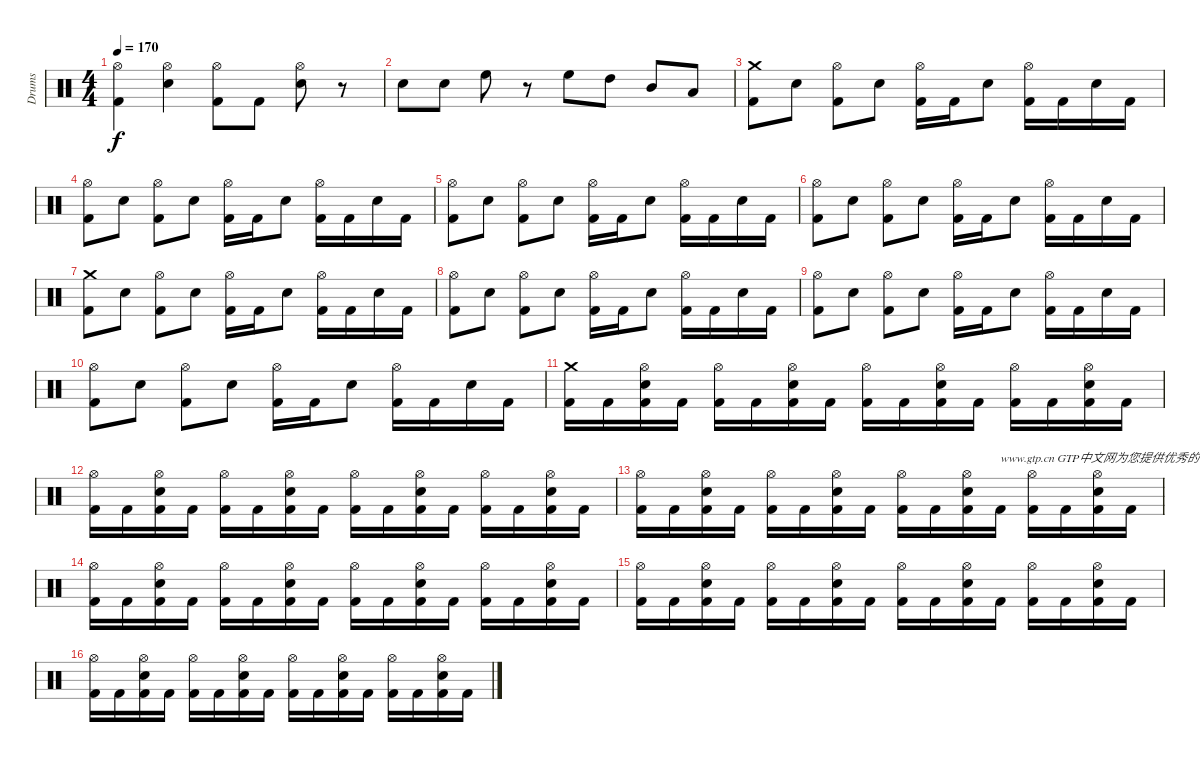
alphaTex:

\track ("Drums" "Drums") {instrument percussion}
\staff {score}
\articulation defaults
\ts (4 4)
\tempo 170
\clef neutral
\ks c
("Hi-Hat (open)" "Kick (hit) 2").4{dy f} ("Hi-Hat (open)" "Electric Snare (hit)").4 ("Hi-Hat (open)" "Kick (hit) 2").8 "Kick (hit) 2".8 ("Hi-Hat (open)" "Electric Snare (hit)").8 r.8 |
"Electric Snare (hit)".8 "Electric Snare (hit)".8 "High Floor Tom (hit)".8 r.8 "High Floor Tom (hit)".8 "High Tom (hit)".8 "Mid Tom (hit)".8 "Low Tom (hit)".8 |
("Crash medium (hit)" "Kick (hit) 2").8 "Electric Snare (hit)".8 ("Hi-Hat (open)" "Kick (hit) 2").8 "Electric Snare (hit)".8 ("Hi-Hat (open)" "Kick (hit) 2").16 "Kick (hit) 2".16 "Electric Snare (hit)".8 ("Hi-Hat (open)" "Kick (hit) 2").16 "Kick (hit) 2".16 "Electric Snare (hit)".16 "Kick (hit) 2".16 |
("Hi-Hat (open)" "Kick (hit) 2").8 "Electric Snare (hit)".8 ("Hi-Hat (open)" "Kick (hit) 2").8 "Electric Snare (hit)".8 ("Hi-Hat (open)" "Kick (hit) 2").16 "Kick (hit) 2".16 "Electric Snare (hit)".8 ("Hi-Hat (open)" "Kick (hit) 2").16 "Kick (hit) 2".16 "Electric Snare (hit)".16 "Kick (hit) 2".16 |
("Hi-Hat (open)" "Kick (hit) 2").8 "Electric Snare (hit)".8 ("Hi-Hat (open)" "Kick (hit) 2").8 "Electric Snare (hit)".8 ("Hi-Hat (open)" "Kick (hit) 2").16 "Kick (hit) 2".16 "Electric Snare (hit)".8 ("Hi-Hat (open)" "Kick (hit) 2").16 "Kick (hit) 2".16 "Electric Snare (hit)".16 "Kick (hit) 2".16 |
("Hi-Hat (open)" "Kick (hit) 2").8 "Electric Snare (hit)".8 ("Hi-Hat (open)" "Kick (hit) 2").8 "Electric Snare (hit)".8 ("Hi-Hat (open)" "Kick (hit) 2").16 "Kick (hit) 2".16 "Electric Snare (hit)".8 ("Hi-Hat (open)" "Kick (hit) 2").16 "Kick (hit) 2".16 "Electric Snare (hit)".16 "Kick (hit) 2".16 |
("Crash medium (hit)" "Kick (hit) 2").8 "Electric Snare (hit)".8 ("Hi-Hat (open)" "Kick (hit) 2").8 "Electric Snare (hit)".8 ("Hi-Hat (open)" "Kick (hit) 2").16 "Kick (hit) 2".16 "Electric Snare (hit)".8 ("Hi-Hat (open)" "Kick (hit) 2").16 "Kick (hit) 2".16 "Electric Snare (hit)".16 "Kick (hit) 2".16 |
("Hi-Hat (open)" "Kick (hit) 2").8 "Electric Snare (hit)".8 ("Hi-Hat (open)" "Kick (hit) 2").8 "Electric Snare (hit)".8 ("Hi-Hat (open)" "Kick (hit) 2").16 "Kick (hit) 2".16 "Electric Snare (hit)".8 ("Hi-Hat (open)" "Kick (hit) 2").16 "Kick (hit) 2".16 "Electric Snare (hit)".16 "Kick (hit) 2".16 |
("Hi-Hat (open)" "Kick (hit) 2").8 "Electric Snare (hit)".8 ("Hi-Hat (open)" "Kick (hit) 2").8 "Electric Snare (hit)".8 ("Hi-Hat (open)" "Kick (hit) 2").16 "Kick (hit) 2".16 "Electric Snare (hit)".8 ("Hi-Hat (open)" "Kick (hit) 2").16 "Kick (hit) 2".16 "Electric Snare (hit)".16 "Kick (hit) 2".16 |
("Hi-Hat (open)" "Kick (hit) 2").8 "Electric Snare (hit)".8 ("Hi-Hat (open)" "Kick (hit) 2").8 "Electric Snare (hit)".8 ("Hi-Hat (open)" "Kick (hit) 2").16 "Kick (hit) 2".16 "Electric Snare (hit)".8 ("Hi-Hat (open)" "Kick (hit) 2").16 "Kick (hit) 2".16 "Electric Snare (hit)".16 "Kick (hit) 2".16 |
("Crash medium (hit)" "Kick (hit) 2").16 "Kick (hit) 2".16 ("Hi-Hat (open)" "Kick (hit) 2" "Electric Snare (hit)").16 "Kick (hit) 2".16 ("Hi-Hat (open)" "Kick (hit) 2").16 "Kick (hit) 2".16 ("Hi-Hat (open)" "Kick (hit) 2" "Electric Snare (hit)").16 "Kick (hit) 2".16 ("Hi-Hat (open)" "Kick (hit) 2").16 "Kick (hit) 2".16 ("Hi-Hat (open)" "Kick (hit) 2" "Electric Snare (hit)").16 "Kick (hit) 2".16 ("Hi-Hat (open)" "Kick (hit) 2").16 "Kick (hit) 2".16 ("Hi-Hat (open)" "Kick (hit) 2" "Electric Snare (hit)").16 "Kick (hit) 2".16 |
("Hi-Hat (open)" "Kick (hit) 2").16 "Kick (hit) 2".16 ("Hi-Hat (open)" "Kick (hit) 2" "Electric Snare (hit)").16 "Kick (hit) 2".16 ("Hi-Hat (open)" "Kick (hit) 2").16 "Kick (hit) 2".16 ("Hi-Hat (open)" "Kick (hit) 2" "Electric Snare (hit)").16 "Kick (hit) 2".16 ("Hi-Hat (open)" "Kick (hit) 2").16 "Kick (hit) 2".16 ("Hi-Hat (open)" "Kick (hit) 2" "Electric Snare (hit)").16 "Kick (hit) 2".16 ("Hi-Hat (open)" "Kick (hit) 2").16 "Kick (hit) 2".16 ("Hi-Hat (open)" "Kick (hit) 2" "Electric Snare (hit)").16 "Kick (hit) 2".16 |
("Hi-Hat (open)" "Kick (hit) 2").16 "Kick (hit) 2".16 ("Hi-Hat (open)" "Kick (hit) 2" "Electric Snare (hit)").16 "Kick (hit) 2".16 ("Hi-Hat (open)" "Kick (hit) 2").16 "Kick (hit) 2".16 ("Hi-Hat (open)" "Kick (hit) 2" "Electric Snare (hit)").16 "Kick (hit) 2".16 ("Hi-Hat (open)" "Kick (hit) 2").16 "Kick (hit) 2".16 ("Hi-Hat (open)" "Kick (hit) 2" "Electric Snare (hit)").16 "Kick (hit) 2".16{txt "www.gtp.cn GTP中文网为您提供优秀的谱子"} ("Hi-Hat (open)" "Kick (hit) 2").16 "Kick (hit) 2".16 ("Hi-Hat (open)" "Kick (hit) 2" "Electric Snare (hit)").16 "Kick (hit) 2".16 |
("Hi-Hat (open)" "Kick (hit) 2").16 "Kick (hit) 2".16 ("Hi-Hat (open)" "Kick (hit) 2" "Electric Snare (hit)").16 "Kick (hit) 2".16 ("Hi-Hat (open)" "Kick (hit) 2").16 "Kick (hit) 2".16 ("Hi-Hat (open)" "Kick (hit) 2" "Electric Snare (hit)").16 "Kick (hit) 2".16 ("Hi-Hat (open)" "Kick (hit) 2").16 "Kick (hit) 2".16 ("Hi-Hat (open)" "Kick (hit) 2" "Electric Snare (hit)").16 "Kick (hit) 2".16 ("Hi-Hat (open)" "Kick (hit) 2").16 "Kick (hit) 2".16 ("Hi-Hat (open)" "Kick (hit) 2" "Electric Snare (hit)").16 "Kick (hit) 2".16 |
("Hi-Hat (open)" "Kick (hit) 2").16 "Kick (hit) 2".16 ("Hi-Hat (open)" "Kick (hit) 2" "Electric Snare (hit)").16 "Kick (hit) 2".16 ("Hi-Hat (open)" "Kick (hit) 2").16 "Kick (hit) 2".16 ("Hi-Hat (open)" "Kick (hit) 2" "Electric Snare (hit)").16 "Kick (hit) 2".16 ("Hi-Hat (open)" "Kick (hit) 2").16 "Kick (hit) 2".16 ("Hi-Hat (open)" "Kick (hit) 2" "Electric Snare (hit)").16 "Kick (hit) 2".16 ("Hi-Hat (open)" "Kick (hit) 2").16 "Kick (hit) 2".16 ("Hi-Hat (open)" "Kick (hit) 2" "Electric Snare (hit)").16 "Kick (hit) 2".16 |
("Hi-Hat (open)" "Kick (hit) 2").16 "Kick (hit) 2".16 ("Hi-Hat (open)" "Kick (hit) 2" "Electric Snare (hit)").16 "Kick (hit) 2".16 ("Hi-Hat (open)" "Kick (hit) 2").16 "Kick (hit) 2".16 ("Hi-Hat (open)" "Kick (hit) 2" "Electric Snare (hit)").16 "Kick (hit) 2".16 ("Hi-Hat (open)" "Kick (hit) 2").16 "Kick (hit) 2".16 ("Hi-Hat (open)" "Kick (hit) 2" "Electric Snare (hit)").16 "Kick (hit) 2".16 ("Hi-Hat (open)" "Kick (hit) 2").16 "Kick (hit) 2".16 ("Hi-Hat (open)" "Kick (hit) 2" "Electric Snare (hit)").16 "Kick (hit) 2".16
